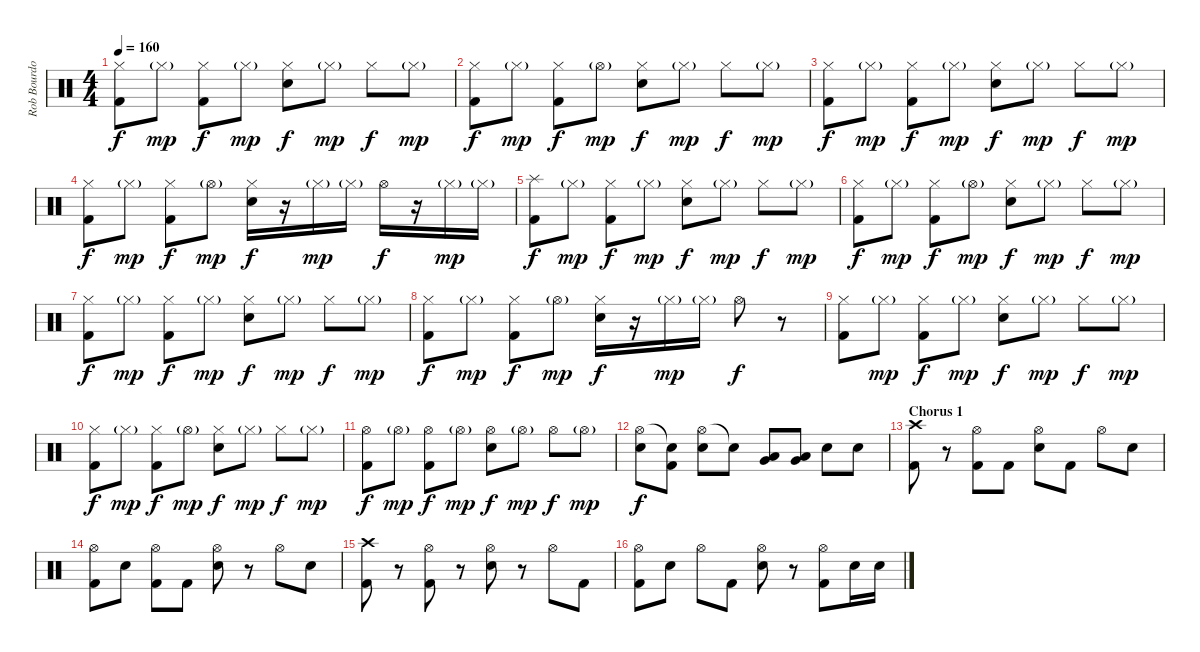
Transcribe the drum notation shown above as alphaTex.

\track ("Rob Bourdon (Drums)" "Rob Bourdo") {instrument percussion}
\staff {score}
\articulation defaults
\ts (4 4)
\tempo 160
\clef neutral
\ks c
("Hi-Hat (closed)" "Kick (hit) 2").8{dy f} "Hi-Hat (closed)"{g}.8{dy mp} ("Hi-Hat (closed)" "Kick (hit) 2").8{dy f} "Hi-Hat (closed)"{g}.8{dy mp} ("Hi-Hat (closed)" "Electric Snare (hit)").8{dy f} "Hi-Hat (closed)"{g}.8{dy mp} "Hi-Hat (closed)".8{dy f} "Hi-Hat (closed)"{g}.8{dy mp} |
("Hi-Hat (closed)" "Kick (hit) 2").8{dy f} "Hi-Hat (closed)"{g}.8{dy mp} ("Hi-Hat (closed)" "Kick (hit) 2").8{dy f} "Hi-Hat (open)"{g}.8{dy mp} ("Hi-Hat (closed)" "Electric Snare (hit)").8{dy f} "Hi-Hat (closed)"{g}.8{dy mp} "Hi-Hat (closed)".8{dy f} "Hi-Hat (closed)"{g}.8{dy mp} |
("Hi-Hat (closed)" "Kick (hit) 2").8{dy f} "Hi-Hat (closed)"{g}.8{dy mp} ("Hi-Hat (closed)" "Kick (hit) 2").8{dy f} "Hi-Hat (closed)"{g}.8{dy mp} ("Hi-Hat (closed)" "Electric Snare (hit)").8{dy f} "Hi-Hat (closed)"{g}.8{dy mp} "Hi-Hat (closed)".8{dy f} "Hi-Hat (closed)"{g}.8{dy mp} |
("Hi-Hat (closed)" "Kick (hit) 2").8{dy f} "Hi-Hat (closed)"{g}.8{dy mp} ("Hi-Hat (closed)" "Kick (hit) 2").8{dy f} "Hi-Hat (open)"{g}.8{dy mp} ("Hi-Hat (closed)" "Electric Snare (hit)").16{dy f} r.16 "Hi-Hat (closed)"{g}.16{dy mp} "Hi-Hat (closed)"{g}.16 "Hi-Hat (open)".16{dy f} r.16 "Hi-Hat (closed)"{g}.16{dy mp} "Hi-Hat (closed)"{g}.16 |
("Splash (hit)" "Kick (hit) 2").8{dy f} "Hi-Hat (closed)"{g}.8{dy mp} ("Hi-Hat (closed)" "Kick (hit) 2").8{dy f} "Hi-Hat (closed)"{g}.8{dy mp} ("Hi-Hat (closed)" "Electric Snare (hit)").8{dy f} "Hi-Hat (closed)"{g}.8{dy mp} "Hi-Hat (closed)".8{dy f} "Hi-Hat (closed)"{g}.8{dy mp} |
("Hi-Hat (closed)" "Kick (hit) 2").8{dy f} "Hi-Hat (closed)"{g}.8{dy mp} ("Hi-Hat (closed)" "Kick (hit) 2").8{dy f} "Hi-Hat (open)"{g}.8{dy mp} ("Hi-Hat (closed)" "Electric Snare (hit)").8{dy f} "Hi-Hat (closed)"{g}.8{dy mp} "Hi-Hat (closed)".8{dy f} "Hi-Hat (closed)"{g}.8{dy mp} |
("Hi-Hat (closed)" "Kick (hit) 2").8{dy f} "Hi-Hat (closed)"{g}.8{dy mp} ("Hi-Hat (closed)" "Kick (hit) 2").8{dy f} "Hi-Hat (closed)"{g}.8{dy mp} ("Hi-Hat (closed)" "Electric Snare (hit)").8{dy f} "Hi-Hat (closed)"{g}.8{dy mp} "Hi-Hat (closed)".8{dy f} "Hi-Hat (closed)"{g}.8{dy mp} |
("Hi-Hat (closed)" "Kick (hit) 2").8{dy f} "Hi-Hat (closed)"{g}.8{dy mp} ("Hi-Hat (closed)" "Kick (hit) 2").8{dy f} "Hi-Hat (open)"{g}.8{dy mp} ("Hi-Hat (closed)" "Electric Snare (hit)").16{dy f} r.16 "Hi-Hat (closed)"{g}.16{dy mp} "Hi-Hat (closed)"{g}.16 "Hi-Hat (open)".8{dy f} r.8 |
("Hi-Hat (closed)" "Kick (hit) 2").8 "Hi-Hat (closed)"{g}.8{dy mp} ("Hi-Hat (closed)" "Kick (hit) 2").8{dy f} "Hi-Hat (closed)"{g}.8{dy mp} ("Hi-Hat (closed)" "Electric Snare (hit)").8{dy f} "Hi-Hat (closed)"{g}.8{dy mp} "Hi-Hat (closed)".8{dy f} "Hi-Hat (closed)"{g}.8{dy mp} |
("Hi-Hat (closed)" "Kick (hit) 2").8{dy f} "Hi-Hat (closed)"{g}.8{dy mp} ("Hi-Hat (closed)" "Kick (hit) 2").8{dy f} "Hi-Hat (open)"{g}.8{dy mp} ("Hi-Hat (closed)" "Electric Snare (hit)").8{dy f} "Hi-Hat (closed)"{g}.8{dy mp} "Hi-Hat (closed)".8{dy f} "Hi-Hat (closed)"{g}.8{dy mp} |
("Hi-Hat (open)" "Kick (hit) 2").8{dy f} "Hi-Hat (open)"{g}.8{dy mp} ("Hi-Hat (open)" "Kick (hit) 2").8{dy f} "Hi-Hat (open)"{g}.8{dy mp} ("Hi-Hat (open)" "Electric Snare (hit)").8{dy f} "Hi-Hat (open)"{g}.8{dy mp} "Hi-Hat (open)".8{dy f} "Hi-Hat (open)"{g}.8{dy mp} |
("Hi-Hat (open)" "Electric Snare (hit)").8{dy f} ("Snare (hit)"{t} "Kick (hit) 2").8 ("Hi-Hat (open)" "Electric Snare (hit)").8 "Snare (hit)"{t}.8 ("Low Tom (hit)" "Very Low Tom (hit)").8 ("Low Tom (hit)" "Very Low Tom (hit)").8 "Electric Snare (hit)".8 "Electric Snare (hit)".8 |
\section ("" "Chorus 1")
("Crash high (hit)" "Kick (hit) 2").8 r.8 ("Hi-Hat (open)" "Kick (hit) 2").8 "Kick (hit) 2".8 ("Hi-Hat (open)" "Electric Snare (hit)").8 "Kick (hit) 2".8 "Hi-Hat (open)".8 "Electric Snare (hit)".8 |
("Hi-Hat (open)" "Kick (hit) 2").8 "Electric Snare (hit)".8 ("Hi-Hat (open)" "Kick (hit) 2").8 "Kick (hit) 2".8 ("Hi-Hat (open)" "Electric Snare (hit)").8 r.8 "Hi-Hat (open)".8 "Electric Snare (hit)".8 |
("Crash high (hit)" "Kick (hit) 2").8 r.8 ("Hi-Hat (open)" "Kick (hit) 2").8 r.8 ("Hi-Hat (open)" "Electric Snare (hit)").8 r.8 "Hi-Hat (open)".8 "Kick (hit) 2".8 |
("Hi-Hat (open)" "Kick (hit) 2").8 "Electric Snare (hit)".8 "Hi-Hat (open)".8 "Kick (hit) 2".8 ("Hi-Hat (open)" "Electric Snare (hit)").8 r.8 ("Hi-Hat (open)" "Kick (hit) 2").8 "Electric Snare (hit)".16 "Electric Snare (hit)".16
